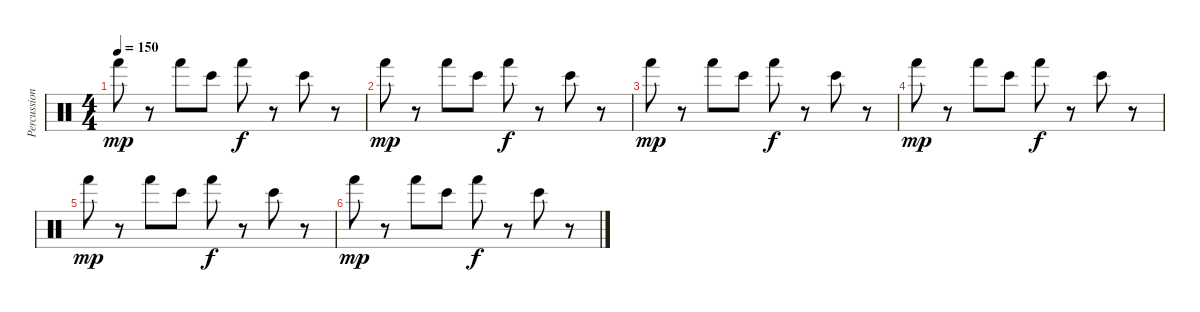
\track ("Percussion" "Percussion") {instrument percussion}
\staff {score}
\articulation defaults
\ts (4 4)
\tempo 150
\clef neutral
\ks c "Hand (hit)".8{dy mp}
r.8 "Hand (hit)".8 "Bongo High (hit)".8 "Hand (hit)".8{dy f} r.8 "Bongo High (hit)".8 r.8 |
"Hand (hit)".8{dy mp} r.8 "Hand (hit)".8 "Bongo High (hit)".8 "Hand (hit)".8{dy f} r.8 "Bongo High (hit)".8 r.8 |
"Hand (hit)".8{dy mp} r.8 "Hand (hit)".8 "Bongo High (hit)".8 "Hand (hit)".8{dy f} r.8 "Bongo High (hit)".8 r.8 |
"Hand (hit)".8{dy mp} r.8 "Hand (hit)".8 "Bongo High (hit)".8 "Hand (hit)".8{dy f} r.8 "Bongo High (hit)".8 r.8 |
"Hand (hit)".8{dy mp} r.8 "Hand (hit)".8 "Bongo High (hit)".8 "Hand (hit)".8{dy f} r.8 "Bongo High (hit)".8 r.8 |
"Hand (hit)".8{dy mp} r.8 "Hand (hit)".8 "Bongo High (hit)".8 "Hand (hit)".8{dy f} r.8 "Bongo High (hit)".8 r.8
